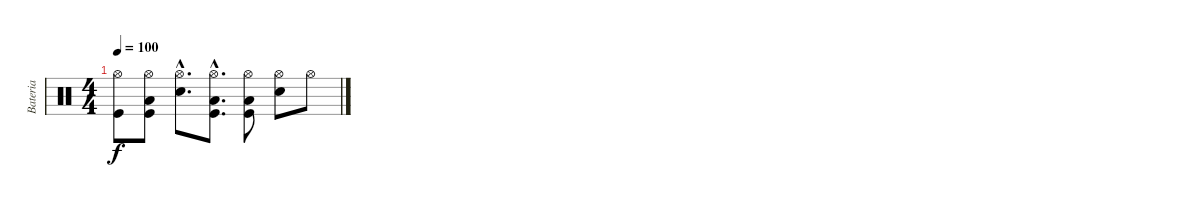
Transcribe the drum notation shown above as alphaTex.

\track ("Bateria" "Bateria") {instrument percussion}
\staff {score}
\articulation defaults
\ts (4 4)
\tempo 100
\clef neutral
\ks c
("Hi-Hat (open)" "Kick (hit)").8{dy f} ("Hi-Hat (open)" "Kick (hit)" "Low Tom (hit)").8 ("Hi-Hat (open)"{hac} "Snare (hit) 2"{hac}).8{d} ("Hi-Hat (open)"{hac} "Kick (hit)"{hac} "Low Tom (hit)"{hac}).8{d} ("Hi-Hat (open)" "Kick (hit)" "Low Tom (hit)").8 ("Hi-Hat (open)" "Snare (hit) 2").8 "Hi-Hat (open)".8
